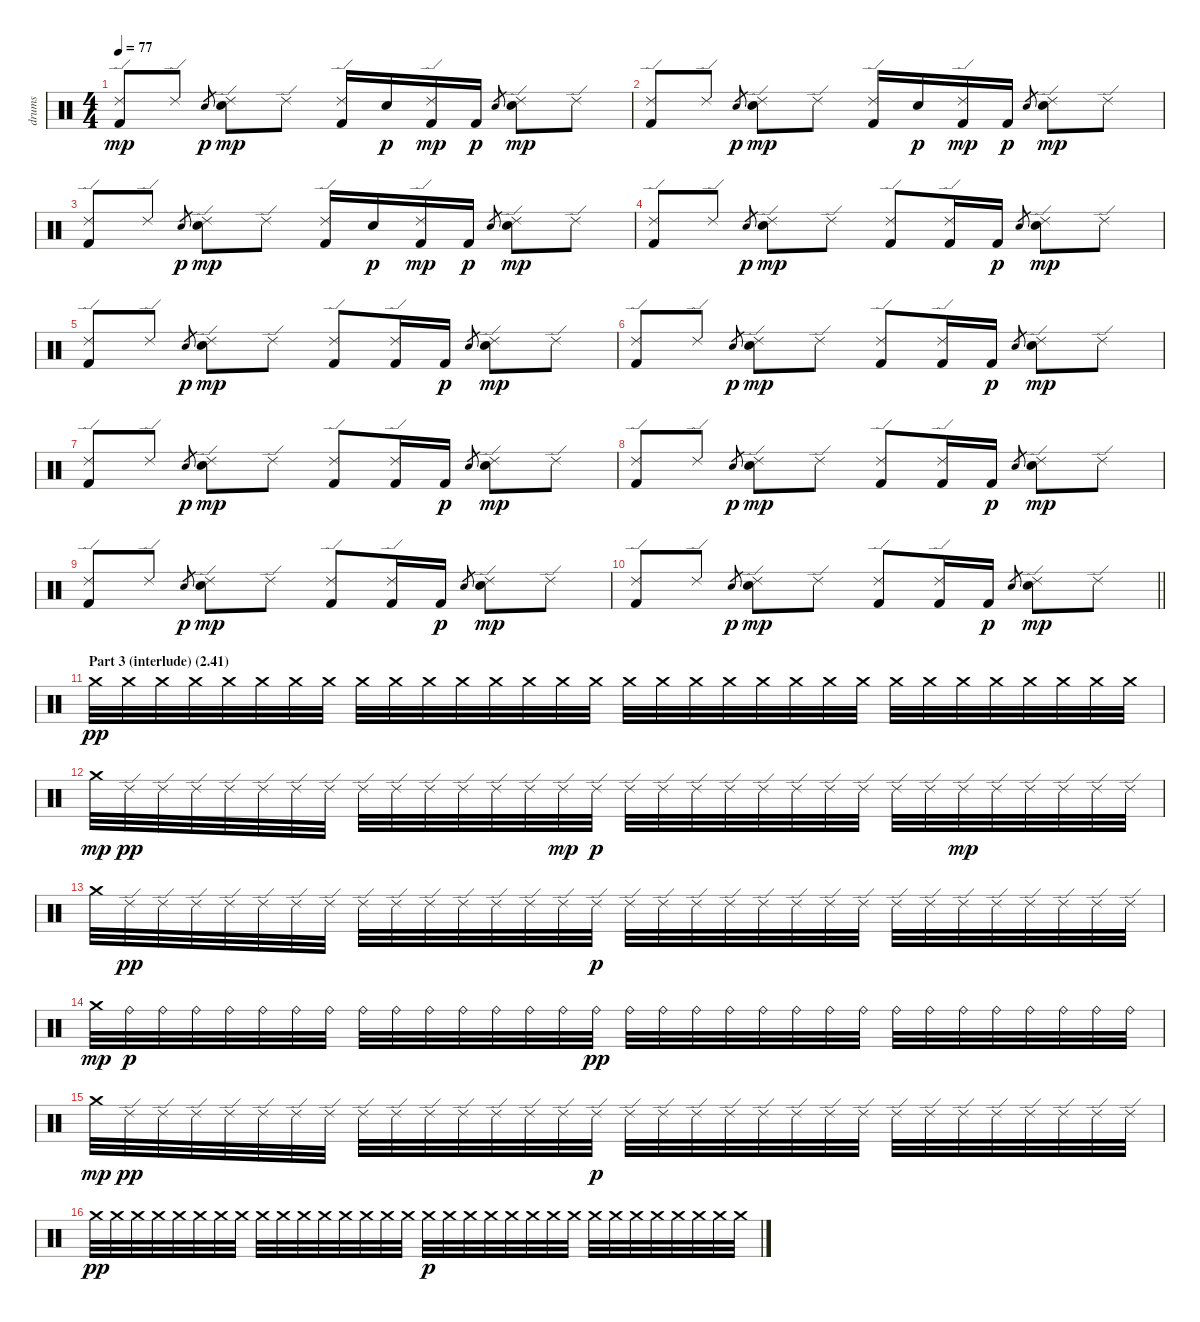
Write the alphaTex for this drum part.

\track ("drums" "drums") {instrument percussion}
\staff {score}
\articulation defaults
\ts (4 4)
\tempo 77
\clef neutral
\ks c
("Ride (edge) 2" "Kick (hit) 2").8{dy mp} "Ride (edge) 2".8 "Snare (hit) 2".8{gr dy p} ("Ride (edge) 2" "Snare (hit) 2").8{dy mp} "Ride (edge) 2".8 ("Ride (edge) 2" "Kick (hit) 2").16 "Snare (hit) 2".16{dy p} ("Kick (hit) 2" "Ride (edge) 2").16{dy mp} "Kick (hit) 2".16{dy p} "Snare (hit) 2".8{gr} ("Ride (edge) 2" "Snare (hit) 2").8{dy mp} "Ride (edge) 2".8 |
("Ride (edge) 2" "Kick (hit) 2").8 "Ride (edge) 2".8 "Snare (hit) 2".8{gr dy p} ("Ride (edge) 2" "Snare (hit) 2").8{dy mp} "Ride (edge) 2".8 ("Ride (edge) 2" "Kick (hit) 2").16 "Snare (hit) 2".16{dy p} ("Kick (hit) 2" "Ride (edge) 2").16{dy mp} "Kick (hit) 2".16{dy p} "Snare (hit) 2".8{gr} ("Ride (edge) 2" "Snare (hit) 2").8{dy mp} "Ride (edge) 2".8 |
("Ride (edge) 2" "Kick (hit) 2").8 "Ride (edge) 2".8 "Snare (hit) 2".8{gr dy p} ("Ride (edge) 2" "Snare (hit) 2").8{dy mp} "Ride (edge) 2".8 ("Ride (edge) 2" "Kick (hit) 2").16 "Snare (hit) 2".16{dy p} ("Kick (hit) 2" "Ride (edge) 2").16{dy mp} "Kick (hit) 2".16{dy p} "Snare (hit) 2".8{gr} ("Ride (edge) 2" "Snare (hit) 2").8{dy mp} "Ride (edge) 2".8 |
("Ride (edge) 2" "Kick (hit) 2").8 "Ride (edge) 2".8 "Snare (hit) 2".8{gr dy p} ("Ride (edge) 2" "Snare (hit) 2").8{dy mp} "Ride (edge) 2".8 ("Ride (edge) 2" "Kick (hit) 2").8 ("Kick (hit) 2" "Ride (edge) 2").16 "Kick (hit) 2".16{dy p} "Snare (hit) 2".8{gr} ("Ride (edge) 2" "Snare (hit) 2").8{dy mp} "Ride (edge) 2".8 |
("Ride (edge) 2" "Kick (hit) 2").8 "Ride (edge) 2".8 "Snare (hit) 2".8{gr dy p} ("Ride (edge) 2" "Snare (hit) 2").8{dy mp} "Ride (edge) 2".8 ("Ride (edge) 2" "Kick (hit) 2").8 ("Kick (hit) 2" "Ride (edge) 2").16 "Kick (hit) 2".16{dy p} "Snare (hit) 2".8{gr} ("Ride (edge) 2" "Snare (hit) 2").8{dy mp} "Ride (edge) 2".8 |
("Ride (edge) 2" "Kick (hit) 2").8 "Ride (edge) 2".8 "Snare (hit) 2".8{gr dy p} ("Ride (edge) 2" "Snare (hit) 2").8{dy mp} "Ride (edge) 2".8 ("Ride (edge) 2" "Kick (hit) 2").8 ("Kick (hit) 2" "Ride (edge) 2").16 "Kick (hit) 2".16{dy p} "Snare (hit) 2".8{gr} ("Ride (edge) 2" "Snare (hit) 2").8{dy mp} "Ride (edge) 2".8 |
("Ride (edge) 2" "Kick (hit) 2").8 "Ride (edge) 2".8 "Snare (hit) 2".8{gr dy p} ("Ride (edge) 2" "Snare (hit) 2").8{dy mp} "Ride (edge) 2".8 ("Ride (edge) 2" "Kick (hit) 2").8 ("Kick (hit) 2" "Ride (edge) 2").16 "Kick (hit) 2".16{dy p} "Snare (hit) 2".8{gr} ("Ride (edge) 2" "Snare (hit) 2").8{dy mp} "Ride (edge) 2".8 |
("Ride (edge) 2" "Kick (hit) 2").8 "Ride (edge) 2".8 "Snare (hit) 2".8{gr dy p} ("Ride (edge) 2" "Snare (hit) 2").8{dy mp} "Ride (edge) 2".8 ("Ride (edge) 2" "Kick (hit) 2").8 ("Kick (hit) 2" "Ride (edge) 2").16 "Kick (hit) 2".16{dy p} "Snare (hit) 2".8{gr} ("Ride (edge) 2" "Snare (hit) 2").8{dy mp} "Ride (edge) 2".8 |
("Ride (edge) 2" "Kick (hit) 2").8 "Ride (edge) 2".8 "Snare (hit) 2".8{gr dy p} ("Ride (edge) 2" "Snare (hit) 2").8{dy mp} "Ride (edge) 2".8 ("Ride (edge) 2" "Kick (hit) 2").8 ("Kick (hit) 2" "Ride (edge) 2").16 "Kick (hit) 2".16{dy p} "Snare (hit) 2".8{gr} ("Ride (edge) 2" "Snare (hit) 2").8{dy mp} "Ride (edge) 2".8 |
\barLineRight lightlight
("Ride (edge) 2" "Kick (hit) 2").8 "Ride (edge) 2".8 "Snare (hit) 2".8{gr dy p} ("Ride (edge) 2" "Snare (hit) 2").8{dy mp} "Ride (edge) 2".8 ("Ride (edge) 2" "Kick (hit) 2").8 ("Kick (hit) 2" "Ride (edge) 2").16 "Kick (hit) 2".16{dy p} "Snare (hit) 2".8{gr} ("Ride (edge) 2" "Snare (hit) 2").8{dy mp} "Ride (edge) 2".8 |
\section ("" "Part 3 (interlude) (2.41)")
"Crash medium (hit)".32{dy pp} "Crash medium (hit)".32 "Crash medium (hit)".32 "Crash medium (hit)".32 "Crash medium (hit)".32 "Crash medium (hit)".32 "Crash medium (hit)".32 "Crash medium (hit)".32 "Crash medium (hit)".32 "Crash medium (hit)".32 "Crash medium (hit)".32 "Crash medium (hit)".32 "Crash medium (hit)".32 "Crash medium (hit)".32 "Crash medium (hit)".32 "Crash medium (hit)".32 "Crash medium (hit)".32 "Crash medium (hit)".32 "Crash medium (hit)".32 "Crash medium (hit)".32 "Crash medium (hit)".32 "Crash medium (hit)".32 "Crash medium (hit)".32 "Crash medium (hit)".32 "Crash medium (hit)".32 "Crash medium (hit)".32 "Crash medium (hit)".32 "Crash medium (hit)".32 "Crash medium (hit)".32 "Crash medium (hit)".32 "Crash medium (hit)".32 "Crash medium (hit)".32 |
"Crash medium (hit)".32{dy mp} "Ride (edge) 2".32{dy pp} "Ride (edge) 2".32 "Ride (edge) 2".32 "Ride (edge) 2".32 "Ride (edge) 2".32 "Ride (edge) 2".32 "Ride (edge) 2".32 "Ride (edge) 2".32 "Ride (edge) 2".32 "Ride (edge) 2".32 "Ride (edge) 2".32 "Ride (edge) 2".32 "Ride (edge) 2".32 "Ride (edge) 2".32{dy mp} "Ride (edge) 2".32{dy p} "Ride (edge) 2".32 "Ride (edge) 2".32 "Ride (edge) 2".32 "Ride (edge) 2".32 "Ride (edge) 2".32 "Ride (edge) 2".32 "Ride (edge) 2".32 "Ride (edge) 2".32 "Ride (edge) 2".32 "Ride (edge) 2".32 "Ride (edge) 2".32{dy mp} "Ride (edge) 2".32 "Ride (edge) 2".32 "Ride (edge) 2".32 "Ride (edge) 2".32 "Ride (edge) 2".32 |
"Crash medium (hit)".32 "Ride (edge) 2".32{dy pp} "Ride (edge) 2".32 "Ride (edge) 2".32 "Ride (edge) 2".32 "Ride (edge) 2".32 "Ride (edge) 2".32 "Ride (edge) 2".32 "Ride (edge) 2".32 "Ride (edge) 2".32 "Ride (edge) 2".32 "Ride (edge) 2".32 "Ride (edge) 2".32 "Ride (edge) 2".32 "Ride (edge) 2".32 "Ride (edge) 2".32{dy p} "Ride (edge) 2".32 "Ride (edge) 2".32 "Ride (edge) 2".32 "Ride (edge) 2".32 "Ride (edge) 2".32 "Ride (edge) 2".32 "Ride (edge) 2".32 "Ride (edge) 2".32 "Ride (edge) 2".32 "Ride (edge) 2".32 "Ride (edge) 2".32 "Ride (edge) 2".32 "Ride (edge) 2".32 "Ride (edge) 2".32 "Ride (edge) 2".32 "Ride (edge) 2".32 |
"Crash medium (hit)".32{dy mp} "Ride (bell)".32{dy p} "Ride (bell)".32 "Ride (bell)".32 "Ride (bell)".32 "Ride (bell)".32 "Ride (bell)".32 "Ride (bell)".32 "Ride (bell)".32 "Ride (bell)".32 "Ride (bell)".32 "Ride (bell)".32 "Ride (bell)".32 "Ride (bell)".32 "Ride (bell)".32 "Ride (bell)".32{dy pp} "Ride (bell)".32 "Ride (bell)".32 "Ride (bell)".32 "Ride (bell)".32 "Ride (bell)".32 "Ride (bell)".32 "Ride (bell)".32 "Ride (bell)".32 "Ride (bell)".32 "Ride (bell)".32 "Ride (bell)".32 "Ride (bell)".32 "Ride (bell)".32 "Ride (bell)".32 "Ride (bell)".32 "Ride (bell)".32 |
"Crash medium (hit)".32{dy mp} "Ride (edge) 2".32{dy pp} "Ride (edge) 2".32 "Ride (edge) 2".32 "Ride (edge) 2".32 "Ride (edge) 2".32 "Ride (edge) 2".32 "Ride (edge) 2".32 "Ride (edge) 2".32 "Ride (edge) 2".32 "Ride (edge) 2".32 "Ride (edge) 2".32 "Ride (edge) 2".32 "Ride (edge) 2".32 "Ride (edge) 2".32 "Ride (edge) 2".32{dy p} "Ride (edge) 2".32 "Ride (edge) 2".32 "Ride (edge) 2".32 "Ride (edge) 2".32 "Ride (edge) 2".32 "Ride (edge) 2".32 "Ride (edge) 2".32 "Ride (edge) 2".32 "Ride (edge) 2".32 "Ride (edge) 2".32 "Ride (edge) 2".32 "Ride (edge) 2".32 "Ride (edge) 2".32 "Ride (edge) 2".32 "Ride (edge) 2".32 "Ride (edge) 2".32 |
"Crash medium (hit)".32{dy pp} "Crash medium (hit)".32 "Crash medium (hit)".32 "Crash medium (hit)".32 "Crash medium (hit)".32 "Crash medium (hit)".32 "Crash medium (hit)".32 "Crash medium (hit)".32 "Crash medium (hit)".32 "Crash medium (hit)".32 "Crash medium (hit)".32 "Crash medium (hit)".32 "Crash medium (hit)".32 "Crash medium (hit)".32 "Crash medium (hit)".32 "Crash medium (hit)".32 "Crash medium (hit)".32{dy p} "Crash medium (hit)".32 "Crash medium (hit)".32 "Crash medium (hit)".32 "Crash medium (hit)".32 "Crash medium (hit)".32 "Crash medium (hit)".32 "Crash medium (hit)".32 "Crash medium (hit)".32 "Crash medium (hit)".32 "Crash medium (hit)".32 "Crash medium (hit)".32 "Crash medium (hit)".32 "Crash medium (hit)".32 "Crash medium (hit)".32 "Crash medium (hit)".32
